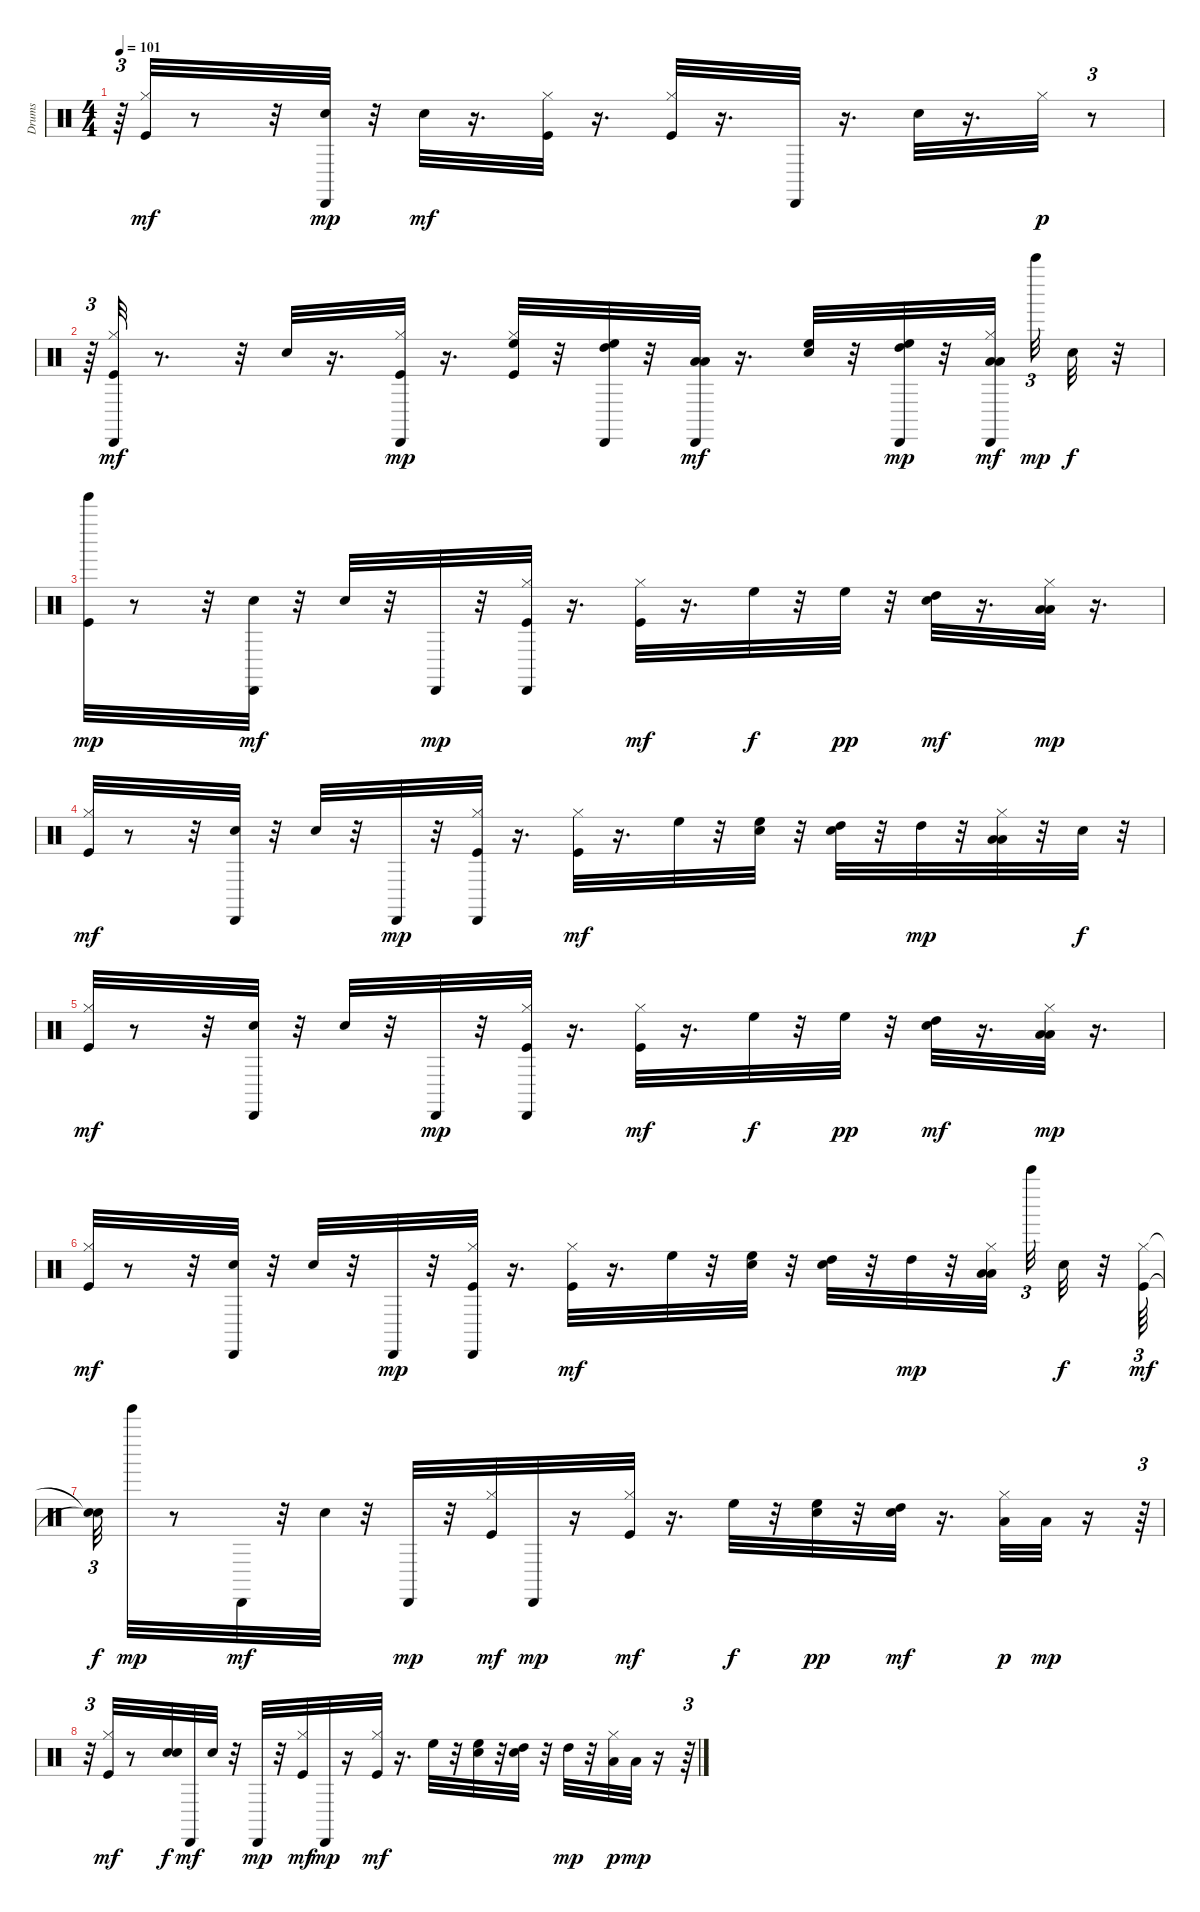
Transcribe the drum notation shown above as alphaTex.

\track ("Drums" "Drums") {instrument percussion}
\staff {score}
\articulation defaults
\ts (4 4)
\tempo 101
\clef neutral
\ks c
r.64{tu (3 2) dy mp} ("Kick (hit)" "Hi-Hat (closed)").32{dy mf} r.8 r.32 ("Hand Clap (hit)" "Cabasa (hit)").32{dy mp} r.32 "Snare (hit) 2".32{dy mf} r.16{d} ("Kick (hit)" "Hi-Hat (closed)").32 r.16{d} ("Kick (hit)" "Hi-Hat (closed)").32 r.16{d} "Cabasa (hit)".32 r.16{d} "Snare (hit) 2".32 r.16{d} "Hi-Hat (closed)".32{dy p} r.8{tu (3 2)} |
r.64{tu (3 2)} ("Kick (hit)" "Hi-Hat (closed)" "Cabasa (hit)").32{dy mf} r.8{d} r.32 "Snare (hit) 2".32 r.16{d} ("Kick (hit)" "Hi-Hat (closed)" "Cabasa (hit)").32{dy mp} r.16{d} ("Kick (hit)" "Hi-Hat (closed)" "High Floor Tom (hit)").32 r.32 ("High Tom (hit)" "High Floor Tom (hit)" "Cabasa (hit)").32 r.32 ("Low Floor Tom (hit)" "Low Tom (hit)" "Cabasa (hit)").32{dy mf} r.16{d} ("Snare (hit) 2" "High Floor Tom (hit)").32 r.32 ("High Tom (hit)" "High Floor Tom (hit)" "Cabasa (hit)").32{dy mp} r.32 ("Low Floor Tom (hit)" "Hi-Hat (closed)" "Low Tom (hit)" "Cabasa (hit)").32{dy mf beam splitsecondary} "Bell Tree (hit)".32{tu (3 2) dy mp} "Hand Clap (hit)".32{dy f} r.32 |
("Kick (hit)" "Tinkle Bell (hit)").32{dy mp} r.8 r.32 ("Hand Clap (hit)" "Cabasa (hit)").32{dy mf} r.32 "Snare (hit) 2".32 r.32 "Cabasa (hit)".32{dy mp} r.32 ("Kick (hit)" "Hi-Hat (closed)" "Cabasa (hit)").32 r.16{d} ("Kick (hit)" "Hi-Hat (closed)").32{dy mf} r.16{d} "High Floor Tom (hit)".32{dy f} r.32 "High Floor Tom (hit)".32{dy pp} r.32 ("Snare (hit) 2" "High Tom (hit)").32{dy mf} r.16{d} ("Low Floor Tom (hit)" "Hi-Hat (closed)" "Low Tom (hit)").32{dy mp} r.16{d} |
("Kick (hit)" "Hi-Hat (closed)").32{dy mf} r.8 r.32 ("Hand Clap (hit)" "Cabasa (hit)").32 r.32 "Snare (hit) 2".32 r.32 "Cabasa (hit)".32{dy mp} r.32 ("Kick (hit)" "Hi-Hat (closed)" "Cabasa (hit)").32 r.16{d} ("Kick (hit)" "Hi-Hat (closed)").32{dy mf} r.16{d} "High Floor Tom (hit)".32 r.32 ("Hand Clap (hit)" "High Floor Tom (hit)").32 r.32 ("Snare (hit) 2" "High Tom (hit)").32 r.32 "High Tom (hit)".32{dy mp} r.32 ("Low Floor Tom (hit)" "Hi-Hat (closed)" "Low Tom (hit)").32 r.32 "Hand Clap (hit)".32{dy f} r.32 |
("Kick (hit)" "Hi-Hat (closed)").32{dy mf} r.8 r.32 ("Hand Clap (hit)" "Cabasa (hit)").32 r.32 "Snare (hit) 2".32 r.32 "Cabasa (hit)".32{dy mp} r.32 ("Kick (hit)" "Hi-Hat (closed)" "Cabasa (hit)").32 r.16{d} ("Kick (hit)" "Hi-Hat (closed)").32{dy mf} r.16{d} "High Floor Tom (hit)".32{dy f} r.32 "High Floor Tom (hit)".32{dy pp} r.32 ("Snare (hit) 2" "High Tom (hit)").32{dy mf} r.16{d} ("Low Floor Tom (hit)" "Hi-Hat (closed)" "Low Tom (hit)").32{dy mp} r.16{d} |
("Kick (hit)" "Hi-Hat (closed)").32{dy mf} r.8 r.32 ("Hand Clap (hit)" "Cabasa (hit)").32 r.32 "Snare (hit) 2".32 r.32 "Cabasa (hit)".32{dy mp} r.32 ("Kick (hit)" "Hi-Hat (closed)" "Cabasa (hit)").32 r.16{d} ("Kick (hit)" "Hi-Hat (closed)").32{dy mf} r.16{d} "High Floor Tom (hit)".32 r.32 ("Hand Clap (hit)" "High Floor Tom (hit)").32 r.32 ("Snare (hit) 2" "High Tom (hit)").32 r.32 "High Tom (hit)".32{dy mp} r.32 ("Low Floor Tom (hit)" "Hi-Hat (closed)" "Low Tom (hit)").32{beam splitsecondary} "Bell Tree (hit)".32{tu (3 2)} "Hand Clap (hit)".32{dy f} r.32 ("Kick (hit)" "Hi-Hat (closed)").64{tu (3 2) dy mf} |
("Snare (hit)"{t} "Snare (hit)"{t}).32{tu (3 2) dy f} "Tinkle Bell (hit)".32{dy mp} r.8 "Cabasa (hit)".32{dy mf} r.32 "Snare (hit) 2".32 r.32 "Cabasa (hit)".32{dy mp} r.32 ("Kick (hit)" "Hi-Hat (closed)").32{dy mf} "Cabasa (hit)".32{dy mp} r.16 ("Kick (hit)" "Hi-Hat (closed)").32{dy mf} r.16{d} "High Floor Tom (hit)".32{dy f} r.32 ("Hand Clap (hit)" "High Floor Tom (hit)").32{dy pp} r.32 ("Snare (hit) 2" "High Tom (hit)").32{dy mf} r.16{d} ("Low Floor Tom (hit)" "Hi-Hat (closed)").32{dy p} "Low Tom (hit)".32{dy mp} r.16 r.64{tu (3 2)} |
r.32{tu (3 2)} ("Kick (hit)" "Hi-Hat (closed)").32{dy mf} r.8 ("Hand Clap (hit)" "Hand Clap (hit)").32{dy f} "Cabasa (hit)".32{dy mf} "Snare (hit) 2".32 r.32 "Cabasa (hit)".32{dy mp} r.32 ("Kick (hit)" "Hi-Hat (closed)").32{dy mf} "Cabasa (hit)".32{dy mp} r.16 ("Kick (hit)" "Hi-Hat (closed)").32{dy mf} r.16{d} "High Floor Tom (hit)".32 r.32 ("Hand Clap (hit)" "High Floor Tom (hit)").32 r.32 ("Snare (hit) 2" "High Tom (hit)").32 r.32 "High Tom (hit)".32{dy mp} r.32 ("Low Floor Tom (hit)" "Hi-Hat (closed)").32{dy p} "Low Tom (hit)".32{dy mp} r.16 r.64{tu (3 2)}
